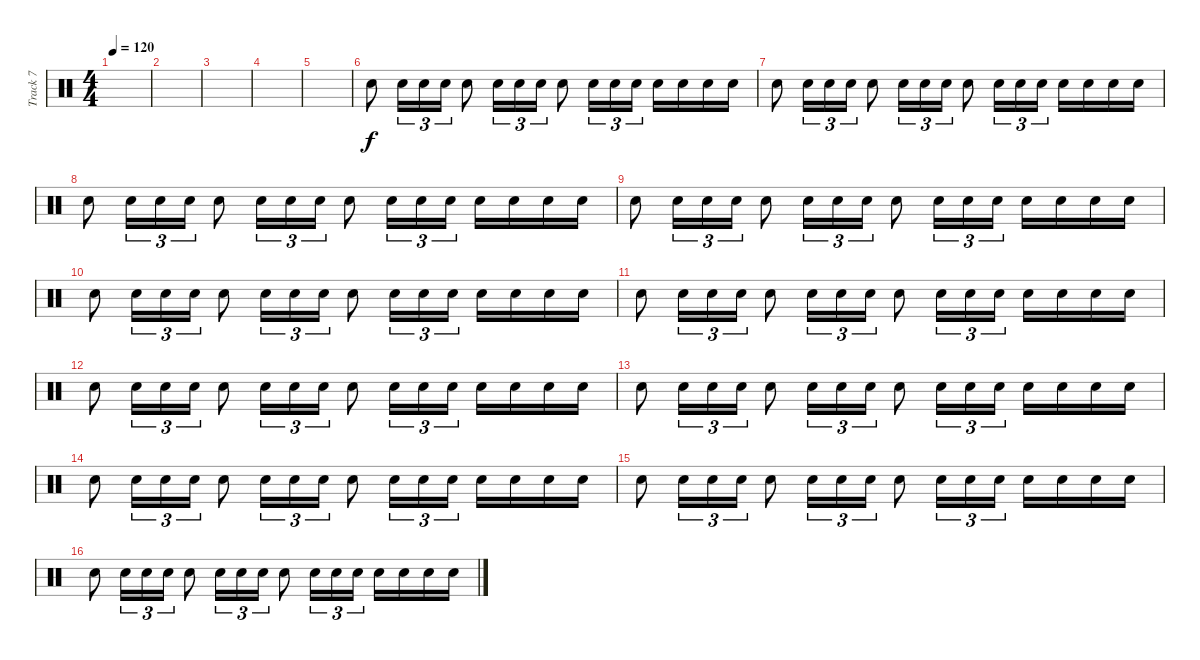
\track ("Track 7" "Track 7") {instrument percussion}
\staff {score}
\articulation defaults
\ts (4 4)
\tempo 120
\clef neutral
\ks c
|
|
|
|
|
"Snare (hit) 2".8 "Snare (hit) 2".16{tu (3 2)} "Snare (hit) 2".16{tu (3 2)} "Snare (hit) 2".16{tu (3 2)} "Snare (hit) 2".8 "Snare (hit) 2".16{tu (3 2)} "Snare (hit) 2".16{tu (3 2)} "Snare (hit) 2".16{tu (3 2)} "Snare (hit) 2".8 "Snare (hit) 2".16{tu (3 2)} "Snare (hit) 2".16{tu (3 2)} "Snare (hit) 2".16{tu (3 2)} "Snare (hit) 2".16 "Snare (hit) 2".16 "Snare (hit) 2".16 "Snare (hit) 2".16 |
"Snare (hit) 2".8 "Snare (hit) 2".16{tu (3 2)} "Snare (hit) 2".16{tu (3 2)} "Snare (hit) 2".16{tu (3 2)} "Snare (hit) 2".8 "Snare (hit) 2".16{tu (3 2)} "Snare (hit) 2".16{tu (3 2)} "Snare (hit) 2".16{tu (3 2)} "Snare (hit) 2".8 "Snare (hit) 2".16{tu (3 2)} "Snare (hit) 2".16{tu (3 2)} "Snare (hit) 2".16{tu (3 2)} "Snare (hit) 2".16 "Snare (hit) 2".16 "Snare (hit) 2".16 "Snare (hit) 2".16 |
"Snare (hit) 2".8 "Snare (hit) 2".16{tu (3 2)} "Snare (hit) 2".16{tu (3 2)} "Snare (hit) 2".16{tu (3 2)} "Snare (hit) 2".8 "Snare (hit) 2".16{tu (3 2)} "Snare (hit) 2".16{tu (3 2)} "Snare (hit) 2".16{tu (3 2)} "Snare (hit) 2".8 "Snare (hit) 2".16{tu (3 2)} "Snare (hit) 2".16{tu (3 2)} "Snare (hit) 2".16{tu (3 2)} "Snare (hit) 2".16 "Snare (hit) 2".16 "Snare (hit) 2".16 "Snare (hit) 2".16 |
"Snare (hit) 2".8 "Snare (hit) 2".16{tu (3 2)} "Snare (hit) 2".16{tu (3 2)} "Snare (hit) 2".16{tu (3 2)} "Snare (hit) 2".8 "Snare (hit) 2".16{tu (3 2)} "Snare (hit) 2".16{tu (3 2)} "Snare (hit) 2".16{tu (3 2)} "Snare (hit) 2".8 "Snare (hit) 2".16{tu (3 2)} "Snare (hit) 2".16{tu (3 2)} "Snare (hit) 2".16{tu (3 2)} "Snare (hit) 2".16 "Snare (hit) 2".16 "Snare (hit) 2".16 "Snare (hit) 2".16 |
"Snare (hit) 2".8 "Snare (hit) 2".16{tu (3 2)} "Snare (hit) 2".16{tu (3 2)} "Snare (hit) 2".16{tu (3 2)} "Snare (hit) 2".8 "Snare (hit) 2".16{tu (3 2)} "Snare (hit) 2".16{tu (3 2)} "Snare (hit) 2".16{tu (3 2)} "Snare (hit) 2".8 "Snare (hit) 2".16{tu (3 2)} "Snare (hit) 2".16{tu (3 2)} "Snare (hit) 2".16{tu (3 2)} "Snare (hit) 2".16 "Snare (hit) 2".16 "Snare (hit) 2".16 "Snare (hit) 2".16 |
"Snare (hit) 2".8 "Snare (hit) 2".16{tu (3 2)} "Snare (hit) 2".16{tu (3 2)} "Snare (hit) 2".16{tu (3 2)} "Snare (hit) 2".8 "Snare (hit) 2".16{tu (3 2)} "Snare (hit) 2".16{tu (3 2)} "Snare (hit) 2".16{tu (3 2)} "Snare (hit) 2".8 "Snare (hit) 2".16{tu (3 2)} "Snare (hit) 2".16{tu (3 2)} "Snare (hit) 2".16{tu (3 2)} "Snare (hit) 2".16 "Snare (hit) 2".16 "Snare (hit) 2".16 "Snare (hit) 2".16 |
"Snare (hit) 2".8 "Snare (hit) 2".16{tu (3 2)} "Snare (hit) 2".16{tu (3 2)} "Snare (hit) 2".16{tu (3 2)} "Snare (hit) 2".8 "Snare (hit) 2".16{tu (3 2)} "Snare (hit) 2".16{tu (3 2)} "Snare (hit) 2".16{tu (3 2)} "Snare (hit) 2".8 "Snare (hit) 2".16{tu (3 2)} "Snare (hit) 2".16{tu (3 2)} "Snare (hit) 2".16{tu (3 2)} "Snare (hit) 2".16 "Snare (hit) 2".16 "Snare (hit) 2".16 "Snare (hit) 2".16 |
"Snare (hit) 2".8 "Snare (hit) 2".16{tu (3 2)} "Snare (hit) 2".16{tu (3 2)} "Snare (hit) 2".16{tu (3 2)} "Snare (hit) 2".8 "Snare (hit) 2".16{tu (3 2)} "Snare (hit) 2".16{tu (3 2)} "Snare (hit) 2".16{tu (3 2)} "Snare (hit) 2".8 "Snare (hit) 2".16{tu (3 2)} "Snare (hit) 2".16{tu (3 2)} "Snare (hit) 2".16{tu (3 2)} "Snare (hit) 2".16 "Snare (hit) 2".16 "Snare (hit) 2".16 "Snare (hit) 2".16 |
"Snare (hit) 2".8 "Snare (hit) 2".16{tu (3 2)} "Snare (hit) 2".16{tu (3 2)} "Snare (hit) 2".16{tu (3 2)} "Snare (hit) 2".8 "Snare (hit) 2".16{tu (3 2)} "Snare (hit) 2".16{tu (3 2)} "Snare (hit) 2".16{tu (3 2)} "Snare (hit) 2".8 "Snare (hit) 2".16{tu (3 2)} "Snare (hit) 2".16{tu (3 2)} "Snare (hit) 2".16{tu (3 2)} "Snare (hit) 2".16 "Snare (hit) 2".16 "Snare (hit) 2".16 "Snare (hit) 2".16 |
"Snare (hit) 2".8 "Snare (hit) 2".16{tu (3 2)} "Snare (hit) 2".16{tu (3 2)} "Snare (hit) 2".16{tu (3 2)} "Snare (hit) 2".8 "Snare (hit) 2".16{tu (3 2)} "Snare (hit) 2".16{tu (3 2)} "Snare (hit) 2".16{tu (3 2)} "Snare (hit) 2".8 "Snare (hit) 2".16{tu (3 2)} "Snare (hit) 2".16{tu (3 2)} "Snare (hit) 2".16{tu (3 2)} "Snare (hit) 2".16 "Snare (hit) 2".16 "Snare (hit) 2".16 "Snare (hit) 2".16 |
"Snare (hit) 2".8 "Snare (hit) 2".16{tu (3 2)} "Snare (hit) 2".16{tu (3 2)} "Snare (hit) 2".16{tu (3 2)} "Snare (hit) 2".8 "Snare (hit) 2".16{tu (3 2)} "Snare (hit) 2".16{tu (3 2)} "Snare (hit) 2".16{tu (3 2)} "Snare (hit) 2".8 "Snare (hit) 2".16{tu (3 2)} "Snare (hit) 2".16{tu (3 2)} "Snare (hit) 2".16{tu (3 2)} "Snare (hit) 2".16 "Snare (hit) 2".16 "Snare (hit) 2".16 "Snare (hit) 2".16
